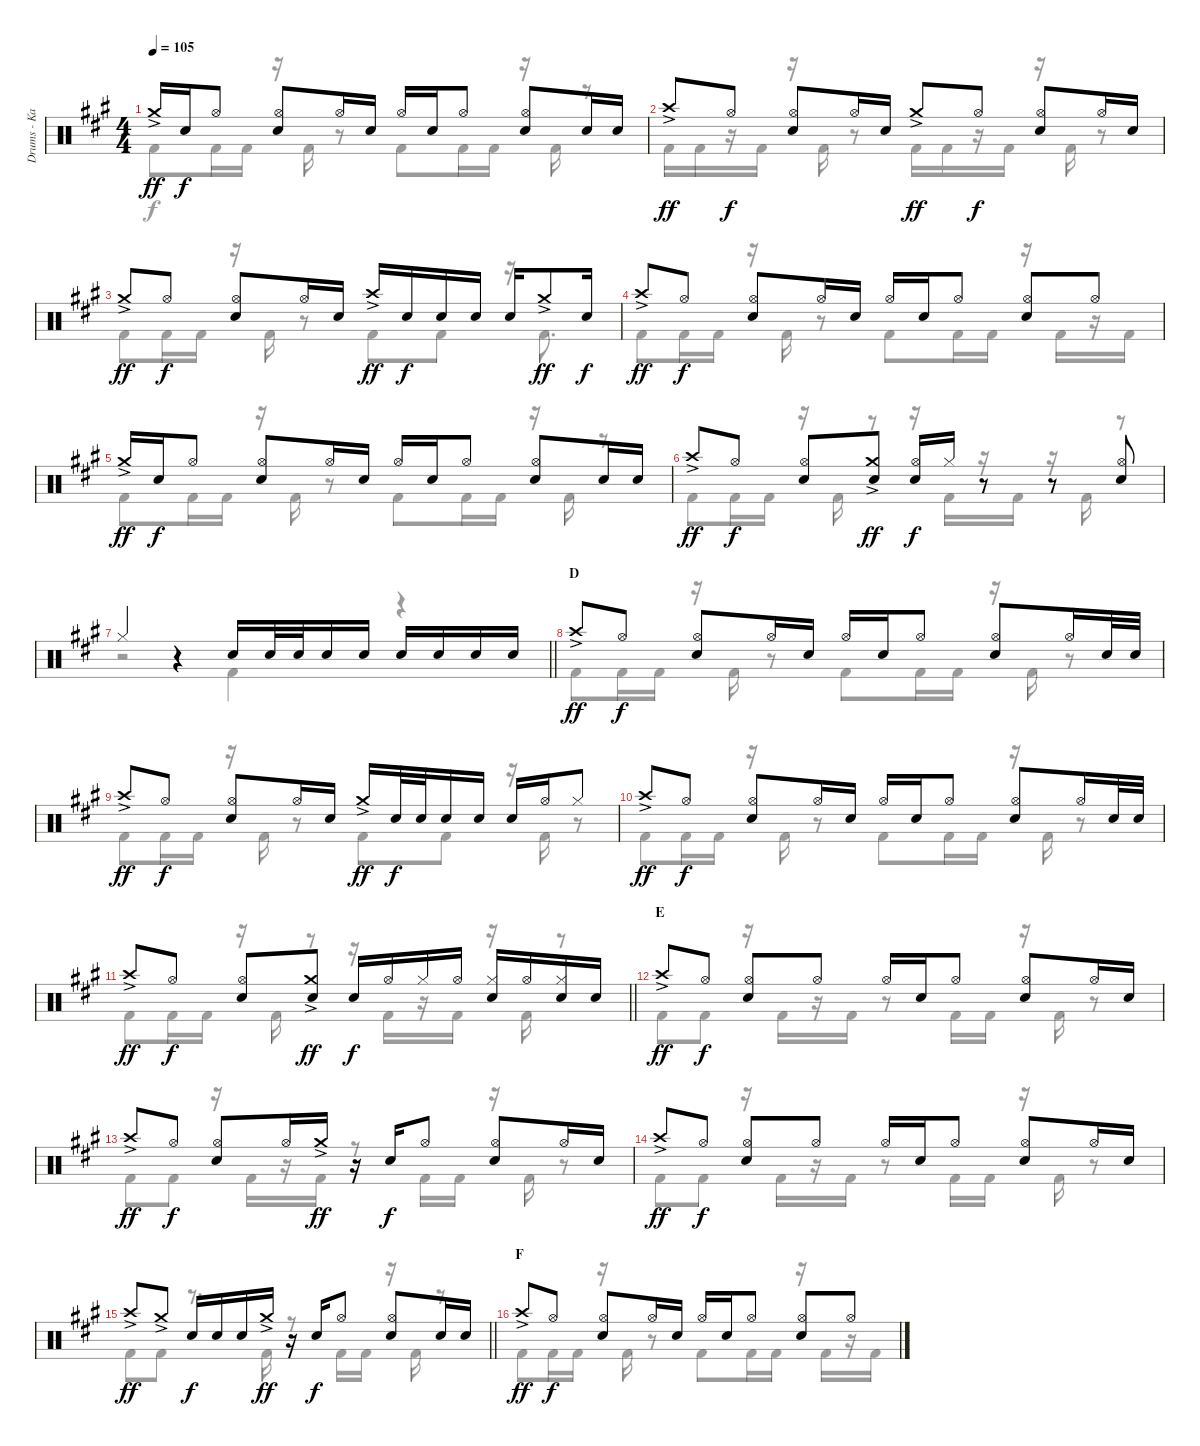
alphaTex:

\track ("Drums - Kai" "Drums - Ka") {instrument percussion}
\staff {score}
\articulation defaults
\voice
\ts (4 4)
\tempo 105
\clef neutral
\ks a "Crash medium (hit)"{ac}.16{dy ff} "Electric Snare (hit)".16{dy f} "Hi-Hat (open)".8
("Hi-Hat (open)" "Electric Snare (hit)").8 "Hi-Hat (open)".16 "Electric Snare (hit)".16 "Hi-Hat (open)".16 "Electric Snare (hit)".16 "Hi-Hat (open)".8 ("Hi-Hat (open)" "Electric Snare (hit)").8 "Electric Snare (hit)".16 "Electric Snare (hit)".16 |
"Crash high (hit)"{ac}.8{dy ff} "Hi-Hat (open)".8{dy f} ("Hi-Hat (open)" "Electric Snare (hit)").8 "Hi-Hat (open)".16 "Electric Snare (hit)".16 "Crash medium (hit)"{ac}.8{dy ff} "Hi-Hat (open)".8{dy f} ("Hi-Hat (open)" "Electric Snare (hit)").8 "Hi-Hat (open)".16 "Electric Snare (hit)".16 |
"Crash medium (hit)"{ac}.8{dy ff} "Hi-Hat (open)".8{dy f} ("Hi-Hat (open)" "Electric Snare (hit)").8 "Hi-Hat (open)".16 "Electric Snare (hit)".16 "Crash high (hit)"{ac}.16{dy ff} "Electric Snare (hit)".16{dy f} "Electric Snare (hit)".16 "Electric Snare (hit)".16 "Electric Snare (hit)".16 "Crash medium (hit)"{ac}.8{dy ff} "Electric Snare (hit)".16{dy f} |
"Crash high (hit)"{ac}.8{dy ff} "Hi-Hat (open)".8{dy f} ("Hi-Hat (open)" "Electric Snare (hit)").8 "Hi-Hat (open)".16 "Electric Snare (hit)".16 "Hi-Hat (open)".16 "Electric Snare (hit)".16 "Hi-Hat (open)".8 ("Hi-Hat (open)" "Electric Snare (hit)").8 "Hi-Hat (open)".8 |
"Crash medium (hit)"{ac}.16{dy ff} "Electric Snare (hit)".16{dy f} "Hi-Hat (open)".8 ("Hi-Hat (open)" "Electric Snare (hit)").8 "Hi-Hat (open)".16 "Electric Snare (hit)".16 "Hi-Hat (open)".16 "Electric Snare (hit)".16 "Hi-Hat (open)".8 ("Hi-Hat (open)" "Electric Snare (hit)").8 "Electric Snare (hit)".16 "Electric Snare (hit)".16 |
"Crash high (hit)"{ac}.8{dy ff} "Hi-Hat (open)".8{dy f} ("Hi-Hat (open)" "Electric Snare (hit)").8 ("Crash medium (hit)"{ac} "Electric Snare (hit)").8{dy ff} ("Hi-Hat (open)" "Electric Snare (hit)").16{dy f} "Hi-Hat (closed)".16 r.8 r.8 ("Hi-Hat (open)" "Electric Snare (hit)").8 |
\barLineRight lightlight "Hi-Hat (closed)".4
r.4 "Electric Snare (hit)".16 "Electric Snare (hit)".32 "Electric Snare (hit)".32 "Electric Snare (hit)".16 "Electric Snare (hit)".16 "Electric Snare (hit)".16 "Electric Snare (hit)".16 "Electric Snare (hit)".16 "Electric Snare (hit)".16 |
\section ("" "D")
"Crash high (hit)"{ac}.8{dy ff} "Hi-Hat (open)".8{dy f} ("Hi-Hat (open)" "Electric Snare (hit)").8 "Hi-Hat (open)".16 "Electric Snare (hit)".16 "Hi-Hat (open)".16 "Electric Snare (hit)".16 "Hi-Hat (open)".8 ("Hi-Hat (open)" "Electric Snare (hit)").8 "Hi-Hat (open)".16 "Electric Snare (hit)".32 "Electric Snare (hit)".32 |
"Crash high (hit)"{ac}.8{dy ff} "Hi-Hat (open)".8{dy f} ("Hi-Hat (open)" "Electric Snare (hit)").8 "Hi-Hat (open)".16 "Electric Snare (hit)".16 "Crash medium (hit)"{ac}.16{dy ff} "Electric Snare (hit)".32{dy f} "Electric Snare (hit)".32 "Electric Snare (hit)".16 "Electric Snare (hit)".16 "Electric Snare (hit)".16 "Hi-Hat (open)".16 "Hi-Hat (closed)".8 |
"Crash high (hit)"{ac}.8{dy ff} "Hi-Hat (open)".8{dy f} ("Hi-Hat (open)" "Electric Snare (hit)").8 "Hi-Hat (open)".16 "Electric Snare (hit)".16 "Hi-Hat (open)".16 "Electric Snare (hit)".16 "Hi-Hat (open)".8 ("Hi-Hat (open)" "Electric Snare (hit)").8 "Hi-Hat (open)".16 "Electric Snare (hit)".32 "Electric Snare (hit)".32 |
\barLineRight lightlight "Crash high (hit)"{ac}.8{dy ff} "Hi-Hat (open)".8{dy f}
("Hi-Hat (open)" "Electric Snare (hit)").8 ("Crash medium (hit)"{ac} "Electric Snare (hit)").8{dy ff} "Electric Snare (hit)".16{dy f} "Hi-Hat (open)".16 "Hi-Hat (closed)".16 "Hi-Hat (open)".16 ("Hi-Hat (closed)" "Electric Snare (hit)").16 "Hi-Hat (open)".16 ("Hi-Hat (closed)" "Electric Snare (hit)").16 "Electric Snare (hit)".16 |
\section ("" "E")
"Crash high (hit)"{ac}.8{dy ff} "Hi-Hat (open)".8{dy f} ("Hi-Hat (open)" "Electric Snare (hit)").8 "Hi-Hat (open)".8 "Hi-Hat (open)".16 "Electric Snare (hit)".16 "Hi-Hat (open)".8 ("Hi-Hat (open)" "Electric Snare (hit)").8 "Hi-Hat (open)".16 "Electric Snare (hit)".16 |
"Crash high (hit)"{ac}.8{dy ff} "Hi-Hat (open)".8{dy f} ("Hi-Hat (open)" "Electric Snare (hit)").8 "Hi-Hat (open)".16 "Crash medium (hit)"{ac}.16{dy ff} r.16 "Electric Snare (hit)".16{dy f} "Hi-Hat (open)".8 ("Hi-Hat (open)" "Electric Snare (hit)").8 "Hi-Hat (open)".16 "Electric Snare (hit)".16 |
"Crash high (hit)"{ac}.8{dy ff} "Hi-Hat (open)".8{dy f} ("Hi-Hat (open)" "Electric Snare (hit)").8 "Hi-Hat (open)".8 "Hi-Hat (open)".16 "Electric Snare (hit)".16 "Hi-Hat (open)".8 ("Hi-Hat (open)" "Electric Snare (hit)").8 "Hi-Hat (open)".16 "Electric Snare (hit)".16 |
\barLineRight lightlight "Crash high (hit)"{ac}.8{dy ff} "Crash medium (hit)"{ac}.8 "Electric Snare (hit)".16{dy f} "Electric Snare (hit)".16 "Electric Snare (hit)".16 "Crash medium (hit)"{ac}.16{dy ff}
r.16 "Electric Snare (hit)".16{dy f} "Hi-Hat (open)".8 ("Hi-Hat (open)" "Electric Snare (hit)").8 "Electric Snare (hit)".16 "Electric Snare (hit)".16 |
\section ("" "F")
"Crash high (hit)"{ac}.8{dy ff} "Hi-Hat (open)".8{dy f} ("Hi-Hat (open)" "Electric Snare (hit)").8 "Hi-Hat (open)".16 "Electric Snare (hit)".16 "Hi-Hat (open)".16 "Electric Snare (hit)".16 "Hi-Hat (open)".8 ("Hi-Hat (open)" "Electric Snare (hit)").8 "Hi-Hat (open)".8
\voice
\clef neutral
\ottava regular
\simile none
\ks a "Kick (hit) 2".8{dy f} "Kick (hit) 2".16 "Kick (hit) 2".16
r.16 "Kick (hit) 2".16 r.8 "Kick (hit) 2".8 "Kick (hit) 2".16 "Kick (hit) 2".16 r.16 "Kick (hit) 2".16 r.8 |
"Kick (hit) 2".16 "Kick (hit) 2".16 r.16 "Kick (hit) 2".16 r.16 "Kick (hit) 2".16 r.8 "Kick (hit) 2".16 "Kick (hit) 2".16 r.16 "Kick (hit) 2".16 r.16 "Kick (hit) 2".16 r.8 |
"Kick (hit) 2".8 "Kick (hit) 2".16 "Kick (hit) 2".16 r.16 "Kick (hit) 2".16 r.8 "Kick (hit) 2".8 "Kick (hit) 2".8 r.16 "Kick (hit) 2".8{d} |
"Kick (hit) 2".8 "Kick (hit) 2".16 "Kick (hit) 2".16 r.16 "Kick (hit) 2".16 r.8 "Kick (hit) 2".8 "Kick (hit) 2".16 "Kick (hit) 2".16 r.16 "Kick (hit) 2".16 r.16 "Kick (hit) 2".16 |
"Kick (hit) 2".8 "Kick (hit) 2".16 "Kick (hit) 2".16 r.16 "Kick (hit) 2".16 r.8 "Kick (hit) 2".8 "Kick (hit) 2".16 "Kick (hit) 2".16 r.16 "Kick (hit) 2".16 r.8 |
"Kick (hit) 2".8 "Kick (hit) 2".16 "Kick (hit) 2".16 r.16 "Kick (hit) 2".16 r.8 r.16 "Kick (hit) 2".16 r.16 "Kick (hit) 2".16 r.16 "Kick (hit) 2".16 r.8 |
\barLineRight lightlight
r.2 "Kick (hit) 2".4 r.4 |
"Kick (hit) 2".8 "Kick (hit) 2".16 "Kick (hit) 2".16 r.16 "Kick (hit) 2".16 r.8 "Kick (hit) 2".8 "Kick (hit) 2".16 "Kick (hit) 2".16 r.16 "Kick (hit) 2".16 r.8 |
"Kick (hit) 2".8 "Kick (hit) 2".16 "Kick (hit) 2".16 r.16 "Kick (hit) 2".16 r.8 "Kick (hit) 2".8 "Kick (hit) 2".8 r.16 "Kick (hit) 2".16 r.8 |
"Kick (hit) 2".8 "Kick (hit) 2".16 "Kick (hit) 2".16 r.16 "Kick (hit) 2".16 r.8 "Kick (hit) 2".8 "Kick (hit) 2".16 "Kick (hit) 2".16 r.16 "Kick (hit) 2".16 r.8 |
\barLineRight lightlight "Kick (hit) 2".8 "Kick (hit) 2".16 "Kick (hit) 2".16
r.16 "Kick (hit) 2".16 r.8 r.16 "Kick (hit) 2".16 r.16 "Kick (hit) 2".16 r.16 "Kick (hit) 2".16 r.8 |
"Kick (hit) 2".8 "Kick (hit) 2".8 r.16 "Kick (hit) 2".16 r.16 "Kick (hit) 2".16 r.8 "Kick (hit) 2".16 "Kick (hit) 2".16 r.16 "Kick (hit) 2".16 r.8 |
"Kick (hit) 2".8 "Kick (hit) 2".8 r.16 "Kick (hit) 2".16 r.16 "Kick (hit) 2".16 r.8 "Kick (hit) 2".16 "Kick (hit) 2".16 r.16 "Kick (hit) 2".16 r.8 |
"Kick (hit) 2".8 "Kick (hit) 2".8 r.16 "Kick (hit) 2".16 r.16 "Kick (hit) 2".16 r.8 "Kick (hit) 2".16 "Kick (hit) 2".16 r.16 "Kick (hit) 2".16 r.8 |
\barLineRight lightlight "Kick (hit) 2".8 "Kick (hit) 2".8
r.8{d} "Kick (hit) 2".16 r.8 "Kick (hit) 2".16 "Kick (hit) 2".16 r.16 "Kick (hit) 2".16 r.8 |
"Kick (hit) 2".8 "Kick (hit) 2".16 "Kick (hit) 2".16 r.16 "Kick (hit) 2".16 r.8 "Kick (hit) 2".8 "Kick (hit) 2".16 "Kick (hit) 2".16 r.16 "Kick (hit) 2".16 r.16 "Kick (hit) 2".16
